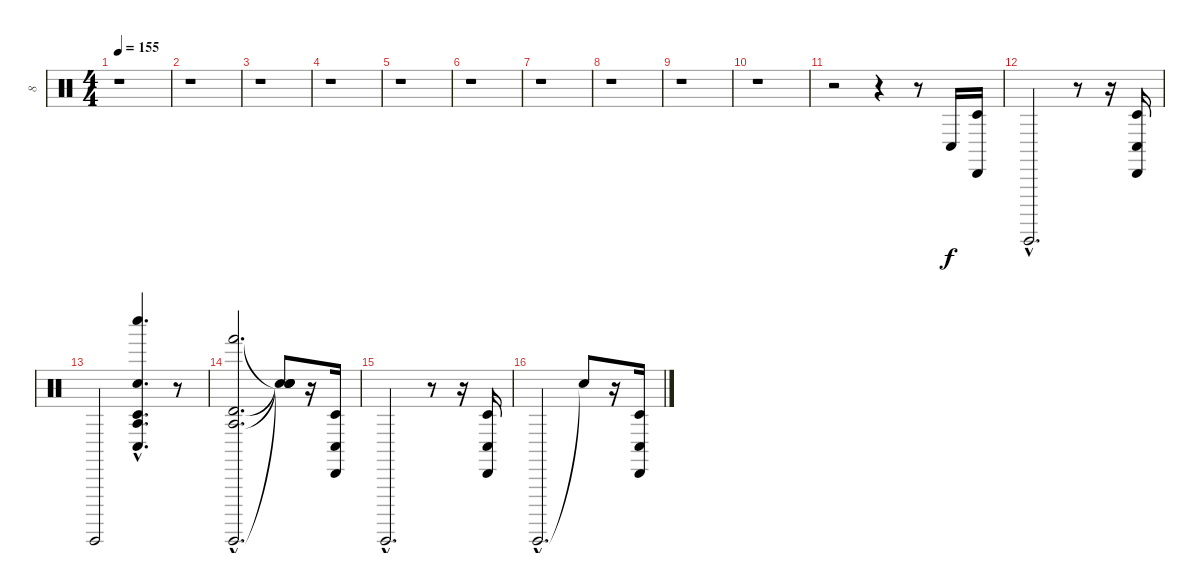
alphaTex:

\track ("8" "8") {instrument percussion}
\staff {score}
\articulation defaults
\ts (4 4)
\tempo 155
\clef neutral
\ks c
r.1{dy f} |
r.1 |
r.1 |
r.1 |
r.1 |
r.1 |
r.1 |
r.1 |
r.1 |
r.1 |
r.2 r.4 r.8 "Conga low (hit)".16 ("Timbale low (hit)" "Cabasa (hit)").16 |
"Guiro (hit)"{hac}.2{d} r.8 r.16 ("Conga low (hit)" "Timbale low (hit)" "Cabasa (hit)").16 |
"Guiro (hit)".2 ("Snare (hit)"{hac} "Whistle low (hit)"{hac} "Timbale low (hit)"{hac} "Agogo tow (hit)"{hac} "Conga low (hit)"{hac}).4{d} r.8 |
("Agogo tow (hit)"{hac} "Timbale high (hit)"{hac} "Hand (hit)"{hac} "Guiro (hit)"{hac}).2{d} ("Snare (hit)"{t} "Snare (hit)"{t} "Snare (hit)"{t} "Snare (hit)"{t}).8 r.16 ("Conga low (hit)" "Timbale low (hit)" "Cabasa (hit)").16 |
"Guiro (hit)"{hac}.2{d} r.8 r.16 ("Timbale low (hit)" "Conga low (hit)" "Cabasa (hit)").16 |
"Guiro (hit)"{hac}.2{d} "Snare (hit)"{t}.8 r.16 ("Conga low (hit)" "Timbale low (hit)" "Cabasa (hit)").16
